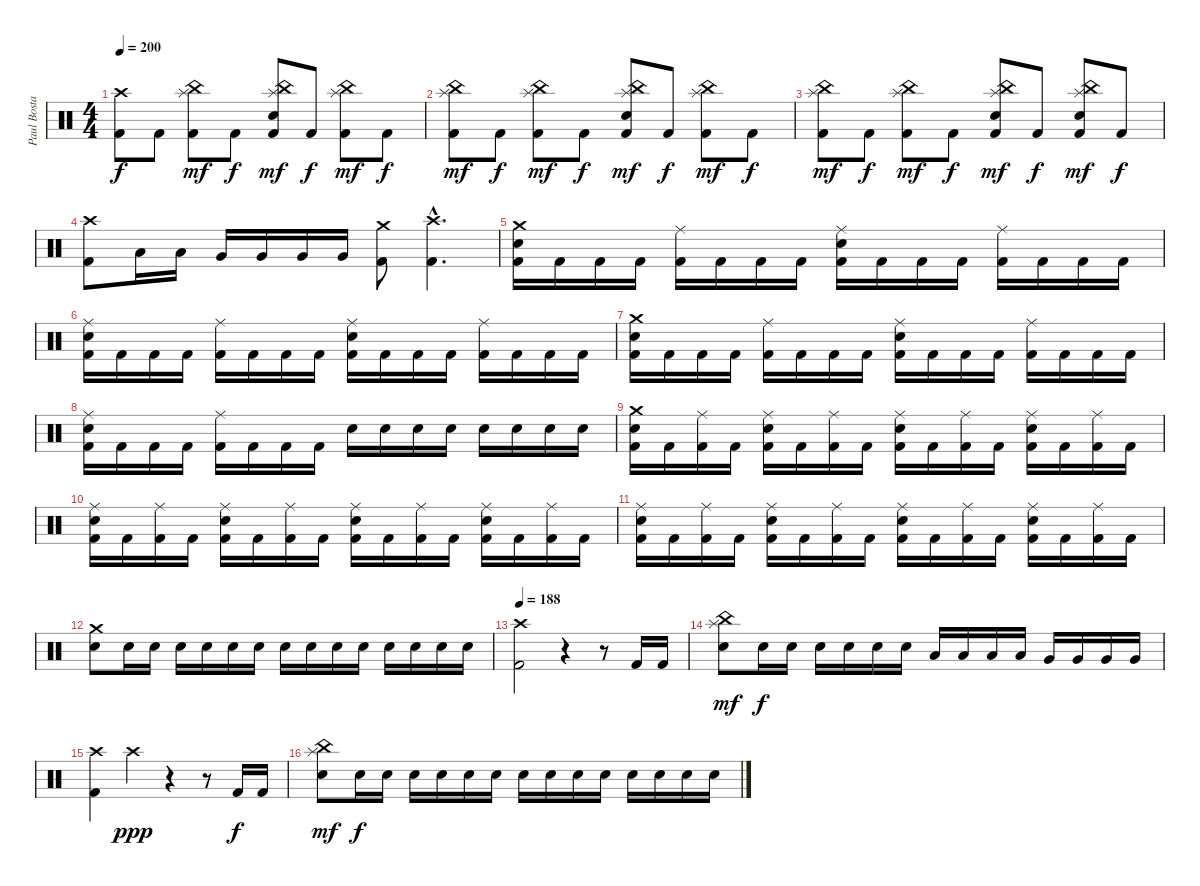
\track ("Paul Bostaph" "Paul Bosta") {instrument percussion}
\staff {score}
\articulation defaults
\ts (4 4)
\tempo 200
\clef neutral
\ks c
("Kick (hit) 2" "Crash high (hit)").8{dy f} "Kick (hit) 2".8 ("Kick (hit) 2" "Splash (hit)" "China (hit)").8{dy mf} "Kick (hit) 2".8{dy f} ("Kick (hit) 2" "Electric Snare (hit)" "Splash (hit)" "China (hit)").8{dy mf} "Kick (hit) 2".8{dy f} ("Kick (hit) 2" "Splash (hit)" "China (hit)").8{dy mf} "Kick (hit) 2".8{dy f} |
("Kick (hit) 2" "Splash (hit)" "China (hit)").8{dy mf} "Kick (hit) 2".8{dy f} ("Kick (hit) 2" "Splash (hit)" "China (hit)").8{dy mf} "Kick (hit) 2".8{dy f} ("Kick (hit) 2" "Electric Snare (hit)" "Splash (hit)" "China (hit)").8{dy mf} "Kick (hit) 2".8{dy f} ("Kick (hit) 2" "Splash (hit)" "China (hit)").8{dy mf} "Kick (hit) 2".8{dy f} |
("Kick (hit) 2" "Splash (hit)" "China (hit)").8{dy mf} "Kick (hit) 2".8{dy f} ("Kick (hit) 2" "Splash (hit)" "China (hit)").8{dy mf} "Kick (hit) 2".8{dy f} ("Kick (hit) 2" "Electric Snare (hit)" "Splash (hit)" "China (hit)").8{dy mf} "Kick (hit) 2".8{dy f} ("Kick (hit) 2" "Electric Snare (hit)" "Splash (hit)" "China (hit)").8{dy mf} "Kick (hit) 2".8{dy f} |
("Crash high (hit)" "Kick (hit) 2").8 "Low Tom (hit)".16 "Low Tom (hit)".16 "Very Low Tom (hit)".16 "Very Low Tom (hit)".16 "Very Low Tom (hit)".16 "Very Low Tom (hit)".16 ("Crash medium (hit)" "Kick (hit) 2").8 ("Crash high (hit)"{hac} "Kick (hit) 2"{hac}).4{d} |
("Electric Snare (hit)" "Kick (hit) 2" "Crash medium (hit)").16 "Kick (hit) 2".16 "Kick (hit) 2".16 "Kick (hit) 2".16 ("Kick (hit) 2" "Ride (middle)").16 "Kick (hit) 2".16 "Kick (hit) 2".16 "Kick (hit) 2".16 ("Electric Snare (hit)" "Kick (hit) 2" "Ride (middle)").16 "Kick (hit) 2".16 "Kick (hit) 2".16 "Kick (hit) 2".16 ("Kick (hit) 2" "Ride (middle)").16 "Kick (hit) 2".16 "Kick (hit) 2".16 "Kick (hit) 2".16 |
("Electric Snare (hit)" "Kick (hit) 2" "Ride (middle)").16 "Kick (hit) 2".16 "Kick (hit) 2".16 "Kick (hit) 2".16 ("Kick (hit) 2" "Ride (middle)").16 "Kick (hit) 2".16 "Kick (hit) 2".16 "Kick (hit) 2".16 ("Electric Snare (hit)" "Kick (hit) 2" "Ride (middle)").16 "Kick (hit) 2".16 "Kick (hit) 2".16 "Kick (hit) 2".16 ("Kick (hit) 2" "Ride (middle)").16 "Kick (hit) 2".16 "Kick (hit) 2".16 "Kick (hit) 2".16 |
("Electric Snare (hit)" "Kick (hit) 2" "Crash medium (hit)").16 "Kick (hit) 2".16 "Kick (hit) 2".16 "Kick (hit) 2".16 ("Kick (hit) 2" "Ride (middle)").16 "Kick (hit) 2".16 "Kick (hit) 2".16 "Kick (hit) 2".16 ("Electric Snare (hit)" "Kick (hit) 2" "Ride (middle)").16 "Kick (hit) 2".16 "Kick (hit) 2".16 "Kick (hit) 2".16 ("Kick (hit) 2" "Ride (middle)").16 "Kick (hit) 2".16 "Kick (hit) 2".16 "Kick (hit) 2".16 |
("Electric Snare (hit)" "Kick (hit) 2" "Ride (middle)").16 "Kick (hit) 2".16 "Kick (hit) 2".16 "Kick (hit) 2".16 ("Kick (hit) 2" "Ride (middle)").16 "Kick (hit) 2".16 "Kick (hit) 2".16 "Kick (hit) 2".16 "Electric Snare (hit)".16 "Electric Snare (hit)".16 "Electric Snare (hit)".16 "Electric Snare (hit)".16 "Electric Snare (hit)".16 "Electric Snare (hit)".16 "Electric Snare (hit)".16 "Electric Snare (hit)".16 |
("Kick (hit) 2" "Electric Snare (hit)" "Crash medium (hit)").16 "Kick (hit) 2".16 ("Kick (hit) 2" "Ride (middle)").16 "Kick (hit) 2".16 ("Kick (hit) 2" "Electric Snare (hit)" "Ride (middle)").16 "Kick (hit) 2".16 ("Kick (hit) 2" "Ride (middle)").16 "Kick (hit) 2".16 ("Kick (hit) 2" "Electric Snare (hit)" "Ride (middle)").16 "Kick (hit) 2".16 ("Kick (hit) 2" "Ride (middle)").16 "Kick (hit) 2".16 ("Kick (hit) 2" "Electric Snare (hit)" "Ride (middle)").16 "Kick (hit) 2".16 ("Kick (hit) 2" "Ride (middle)").16 "Kick (hit) 2".16 |
("Kick (hit) 2" "Electric Snare (hit)" "Ride (middle)").16 "Kick (hit) 2".16 ("Kick (hit) 2" "Ride (middle)").16 "Kick (hit) 2".16 ("Kick (hit) 2" "Electric Snare (hit)" "Ride (middle)").16 "Kick (hit) 2".16 ("Kick (hit) 2" "Ride (middle)").16 "Kick (hit) 2".16 ("Kick (hit) 2" "Electric Snare (hit)" "Ride (middle)").16 "Kick (hit) 2".16 ("Kick (hit) 2" "Ride (middle)").16 "Kick (hit) 2".16 ("Kick (hit) 2" "Electric Snare (hit)" "Ride (middle)").16 "Kick (hit) 2".16 ("Kick (hit) 2" "Ride (middle)").16 "Kick (hit) 2".16 |
("Kick (hit) 2" "Electric Snare (hit)" "Ride (middle)").16 "Kick (hit) 2".16 ("Kick (hit) 2" "Ride (middle)").16 "Kick (hit) 2".16 ("Kick (hit) 2" "Electric Snare (hit)" "Ride (middle)").16 "Kick (hit) 2".16 ("Kick (hit) 2" "Ride (middle)").16 "Kick (hit) 2".16 ("Kick (hit) 2" "Electric Snare (hit)" "Ride (middle)").16 "Kick (hit) 2".16 ("Kick (hit) 2" "Ride (middle)").16 "Kick (hit) 2".16 ("Kick (hit) 2" "Electric Snare (hit)" "Ride (middle)").16 "Kick (hit) 2".16 ("Kick (hit) 2" "Ride (middle)").16 "Kick (hit) 2".16 |
("Crash medium (hit)" "Electric Snare (hit)").8 "Electric Snare (hit)".16 "Electric Snare (hit)".16 "Electric Snare (hit)".16 "Electric Snare (hit)".16 "Electric Snare (hit)".16 "Electric Snare (hit)".16 "Electric Snare (hit)".16 "Electric Snare (hit)".16 "Electric Snare (hit)".16 "Electric Snare (hit)".16 "Electric Snare (hit)".16 "Electric Snare (hit)".16 "Electric Snare (hit)".16 "Electric Snare (hit)".16 |
\tempo 188
("Crash high (hit)" "Kick (hit) 2").2 r.4 r.8 "Kick (hit) 2".16 "Kick (hit) 2".16 |
("Electric Snare (hit)" "Splash (hit)" "China (hit)").8{dy mf} "Electric Snare (hit)".16{dy f} "Electric Snare (hit)".16 "Electric Snare (hit)".16 "Electric Snare (hit)".16 "Electric Snare (hit)".16 "Electric Snare (hit)".16 "Low Tom (hit)".16 "Low Tom (hit)".16 "Low Tom (hit)".16 "Low Tom (hit)".16 "Very Low Tom (hit)".16 "Very Low Tom (hit)".16 "Very Low Tom (hit)".16 "Very Low Tom (hit)".16 |
("Crash high (hit)" "Kick (hit) 2").4 "Crash high (hit)".4{dy ppp} r.4 r.8 "Kick (hit) 2".16{dy f} "Kick (hit) 2".16 |
("Electric Snare (hit)" "Splash (hit)" "China (hit)").8{dy mf} "Electric Snare (hit)".16{dy f} "Electric Snare (hit)".16 "Electric Snare (hit)".16 "Electric Snare (hit)".16 "Electric Snare (hit)".16 "Electric Snare (hit)".16 "Electric Snare (hit)".16 "Electric Snare (hit)".16 "Electric Snare (hit)".16 "Electric Snare (hit)".16 "Electric Snare (hit)".16 "Electric Snare (hit)".16 "Electric Snare (hit)".16 "Electric Snare (hit)".16
